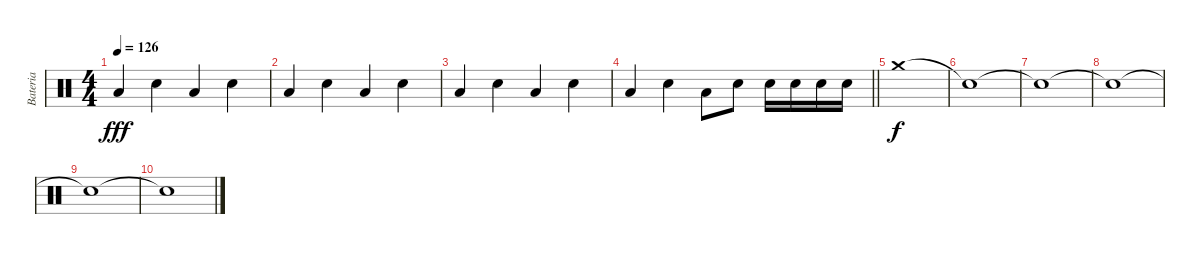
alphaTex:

\track ("Bateria" "Bateria") {instrument percussion}
\staff {score}
\articulation defaults
\ts (4 4)
\tempo 126
\clef neutral
\ks c "Low Floor Tom (hit)".4{dy fff} "Snare (hit) 2".4 "Low Floor Tom (hit)".4 "Snare (hit) 2".4
|
"Low Floor Tom (hit)".4 "Snare (hit) 2".4 "Low Floor Tom (hit)".4 "Snare (hit) 2".4 |
"Low Floor Tom (hit)".4 "Snare (hit) 2".4 "Low Floor Tom (hit)".4 "Snare (hit) 2".4 |
\barLineRight lightlight "Low Floor Tom (hit)".4 "Snare (hit) 2".4 "Low Floor Tom (hit)".8 "Snare (hit) 2".8 "Snare (hit) 2".16 "Snare (hit) 2".16 "Snare (hit) 2".16 "Snare (hit) 2".16
|
"Crash medium (hit)".1{dy f} |
"Snare (hit)"{t}.1 |
"Snare (hit)"{t}.1 |
"Snare (hit)"{t}.1 |
"Snare (hit)"{t}.1 |
"Snare (hit)"{t}.1
